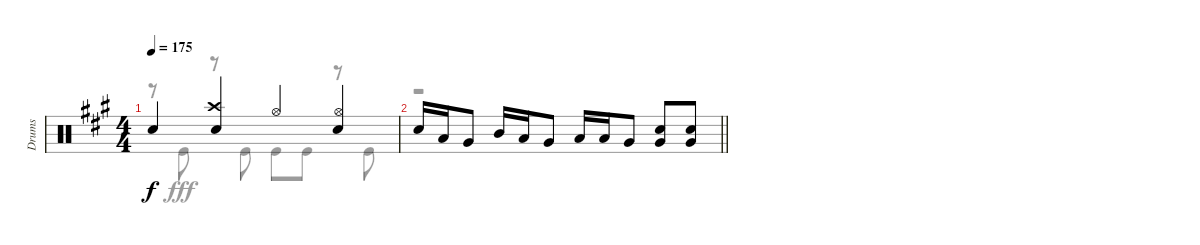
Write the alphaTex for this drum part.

\track ("Drums" "Drums") {instrument percussion}
\staff {score}
\articulation defaults
\voice
\ts (4 4)
\tempo 175
\clef neutral
\ks a "Snare (hit)"{t}.4{dy f}
("Crash high (hit)" "Snare (hit) 2").4 "Hi-Hat (open)".4 ("Hi-Hat (open)" "Snare (hit) 2").4 |
\barLineRight lightlight "Snare (hit) 2".16 "Low Tom (hit)".16 "Very Low Tom (hit)".8 "Mid Tom (hit)".16 "Low Tom (hit)".16 "Very Low Tom (hit)".8 "Low Tom (hit)".16 "Low Tom (hit)".16 "Very Low Tom (hit)".8
("Snare (hit) 2" "Very Low Tom (hit)").8 ("Snare (hit) 2" "Very Low Tom (hit)").8
\voice
\clef neutral
\ottava regular
\simile none
\ks a
r.8{dy fff} "Kick (hit)".8 r.8 "Kick (hit)".8 "Kick (hit)".8 "Kick (hit)".8 r.8 "Kick (hit)".8 |
\barLineRight lightlight
r.1
